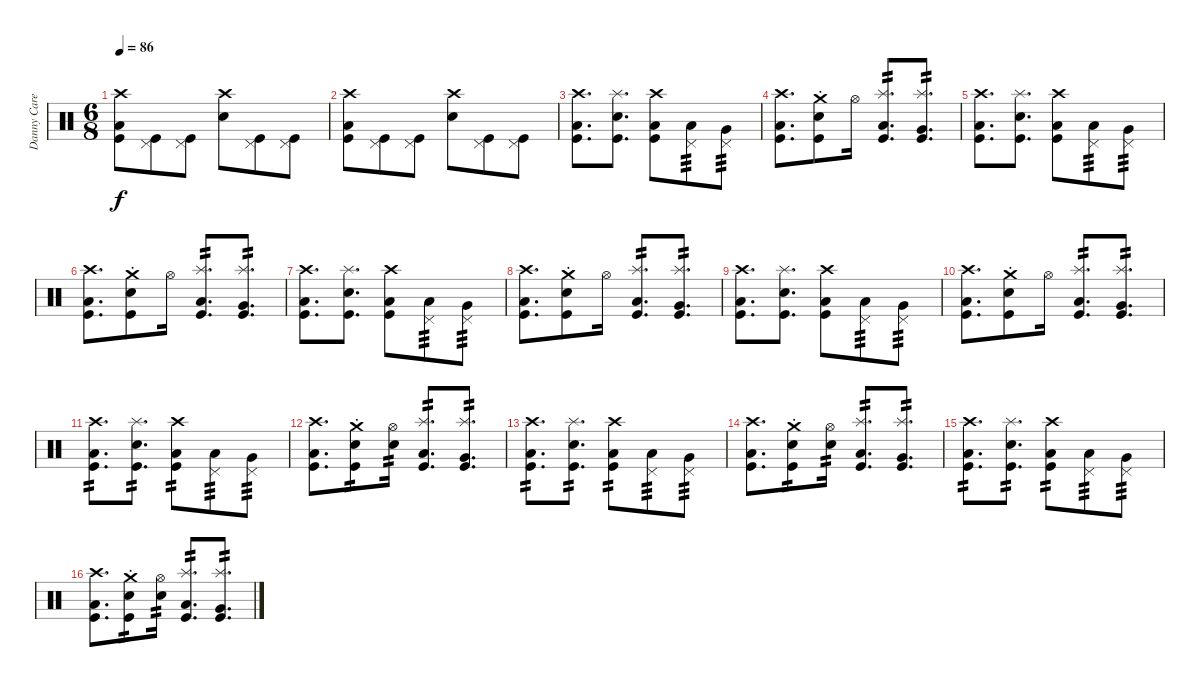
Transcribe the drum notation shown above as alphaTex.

\track ("Danny Carey" "Danny Care") {instrument percussion}
\staff {score}
\articulation defaults
\ts (6 8)
\tempo 86
\clef neutral
\ks c
("Crash high (hit)" "Low Floor Tom (hit)" "Kick (hit)").8{dy f} ("Pedal Hi-Hat (hit)" "Kick (hit)").8 ("Pedal Hi-Hat (hit)" "Kick (hit)").8 ("Crash high (hit)" "Electric Snare (hit)").8 ("Pedal Hi-Hat (hit)" "Kick (hit)").8 ("Pedal Hi-Hat (hit)" "Kick (hit)").8 |
("Crash high (hit)" "Low Floor Tom (hit)" "Kick (hit)").8 ("Pedal Hi-Hat (hit)" "Kick (hit)").8 ("Pedal Hi-Hat (hit)" "Kick (hit)").8 ("Crash high (hit)" "Electric Snare (hit)").8 ("Pedal Hi-Hat (hit)" "Kick (hit)").8 ("Pedal Hi-Hat (hit)" "Kick (hit)").8 |
("Crash high (hit)" "Low Floor Tom (hit)" "Kick (hit)").8{d} ("Splash (hit)" "Electric Snare (hit)" "Kick (hit)").8{d} ("Crash high (hit)" "Low Floor Tom (hit)" "Kick (hit)").8 ("Pedal Hi-Hat (hit)" "Low Tom (hit)").8{tp 3} ("Pedal Hi-Hat (hit)" "Very Low Tom (hit)").8{tp 3} |
("Crash high (hit)" "Low Floor Tom (hit)" "Kick (hit)").8{d} ("Crash medium (hit)" "Electric Snare (hit)"{st} "Kick (hit)").8 "Hi-Hat (open)".16 ("Splash (hit)" "Low Tom (hit)" "Kick (hit)").8{d tp 2} ("Splash (hit)" "Very Low Tom (hit)" "Kick (hit)").8{d tp 2} |
("Crash high (hit)" "Low Floor Tom (hit)" "Kick (hit)").8{d} ("Splash (hit)" "Electric Snare (hit)" "Kick (hit)").8{d} ("Crash high (hit)" "Low Floor Tom (hit)" "Kick (hit)").8 ("Pedal Hi-Hat (hit)" "Low Tom (hit)").8{tp 3} ("Pedal Hi-Hat (hit)" "Very Low Tom (hit)").8{tp 3} |
("Crash high (hit)" "Low Floor Tom (hit)" "Kick (hit)").8{d} ("Crash medium (hit)" "Electric Snare (hit)"{st} "Kick (hit)").8 "Hi-Hat (open)".16 ("Splash (hit)" "Low Tom (hit)" "Kick (hit)").8{d tp 2} ("Splash (hit)" "Very Low Tom (hit)" "Kick (hit)").8{d tp 2} |
("Crash high (hit)" "Low Floor Tom (hit)" "Kick (hit)").8{d} ("Splash (hit)" "Electric Snare (hit)" "Kick (hit)").8{d} ("Crash high (hit)" "Low Floor Tom (hit)" "Kick (hit)").8 ("Pedal Hi-Hat (hit)" "Low Tom (hit)").8{tp 3} ("Pedal Hi-Hat (hit)" "Very Low Tom (hit)").8{tp 3} |
("Crash high (hit)" "Low Floor Tom (hit)" "Kick (hit)").8{d} ("Crash medium (hit)" "Electric Snare (hit)"{st} "Kick (hit)").8 "Hi-Hat (open)".16 ("Splash (hit)" "Low Tom (hit)" "Kick (hit)").8{d tp 2} ("Splash (hit)" "Very Low Tom (hit)" "Kick (hit)").8{d tp 2} |
("Crash high (hit)" "Low Floor Tom (hit)" "Kick (hit)").8{d} ("Splash (hit)" "Electric Snare (hit)" "Kick (hit)").8{d} ("Crash high (hit)" "Low Floor Tom (hit)" "Kick (hit)").8 ("Pedal Hi-Hat (hit)" "Low Tom (hit)").8{tp 3} ("Pedal Hi-Hat (hit)" "Very Low Tom (hit)").8{tp 3} |
("Crash high (hit)" "Low Floor Tom (hit)" "Kick (hit)").8{d} ("Crash medium (hit)" "Electric Snare (hit)"{st} "Kick (hit)").8 "Hi-Hat (open)".16 ("Splash (hit)" "Low Tom (hit)" "Kick (hit)").8{d tp 2} ("Splash (hit)" "Very Low Tom (hit)" "Kick (hit)").8{d tp 2} |
("Crash high (hit)" "Low Floor Tom (hit)" "Kick (hit)").8{d tp 2} ("Splash (hit)" "Electric Snare (hit)" "Kick (hit)").8{d tp 2} ("Crash high (hit)" "Low Floor Tom (hit)" "Kick (hit)").8{tp 2} ("Pedal Hi-Hat (hit)" "Low Tom (hit)").8{tp 3} ("Pedal Hi-Hat (hit)" "Very Low Tom (hit)").8{tp 3} |
("Crash high (hit)" "Low Floor Tom (hit)" "Kick (hit)").8{d} ("Crash medium (hit)" "Electric Snare (hit)"{st} "Kick (hit)").8{tp 2} ("Hi-Hat (open)" "Electric Snare (hit)").16{tp 2} ("Splash (hit)" "Low Tom (hit)" "Kick (hit)").8{d tp 2} ("Splash (hit)" "Very Low Tom (hit)" "Kick (hit)").8{d tp 2} |
("Crash high (hit)" "Low Floor Tom (hit)" "Kick (hit)").8{d tp 2} ("Splash (hit)" "Electric Snare (hit)" "Kick (hit)").8{d tp 2} ("Crash high (hit)" "Low Floor Tom (hit)" "Kick (hit)").8{tp 2} ("Pedal Hi-Hat (hit)" "Low Tom (hit)").8{tp 3} ("Pedal Hi-Hat (hit)" "Very Low Tom (hit)").8{tp 3} |
("Crash high (hit)" "Low Floor Tom (hit)" "Kick (hit)").8{d} ("Crash medium (hit)" "Electric Snare (hit)"{st} "Kick (hit)").8{tp 2} ("Hi-Hat (open)" "Electric Snare (hit)").16{tp 2} ("Splash (hit)" "Low Tom (hit)" "Kick (hit)").8{d tp 2} ("Splash (hit)" "Very Low Tom (hit)" "Kick (hit)").8{d tp 2} |
("Crash high (hit)" "Low Floor Tom (hit)" "Kick (hit)").8{d tp 2} ("Splash (hit)" "Electric Snare (hit)" "Kick (hit)").8{d tp 2} ("Crash high (hit)" "Low Floor Tom (hit)" "Kick (hit)").8{tp 2} ("Pedal Hi-Hat (hit)" "Low Tom (hit)").8{tp 3} ("Pedal Hi-Hat (hit)" "Very Low Tom (hit)").8{tp 3} |
("Crash high (hit)" "Low Floor Tom (hit)" "Kick (hit)").8{d} ("Crash medium (hit)" "Electric Snare (hit)"{st} "Kick (hit)").8{tp 2} ("Hi-Hat (open)" "Electric Snare (hit)").16{tp 2} ("Splash (hit)" "Low Tom (hit)" "Kick (hit)").8{d tp 2} ("Splash (hit)" "Very Low Tom (hit)" "Kick (hit)").8{d tp 2}
